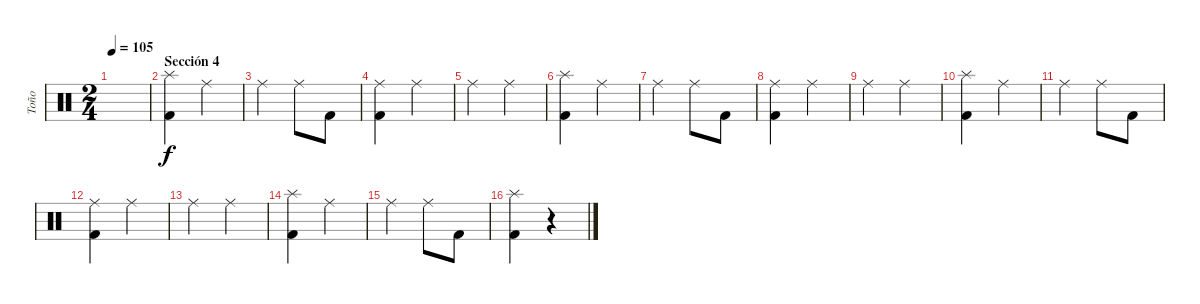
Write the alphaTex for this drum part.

\track ("Toño" "Toño") {instrument percussion}
\staff {score}
\articulation defaults
\ts (2 4)
\tempo 105
\clef neutral
\ks c
|
\section ("" "Sección 4")
("Splash (hit)" "Kick (hit) 2").4 "Ride (middle)".4 |
"Ride (middle)".4 "Ride (middle)".8 "Kick (hit) 2".8 |
("Ride (middle)" "Kick (hit) 2").4 "Ride (middle)".4 |
"Ride (middle)".4 "Ride (middle)".4 |
("Splash (hit)" "Kick (hit) 2").4 "Ride (middle)".4 |
"Ride (middle)".4 "Ride (middle)".8 "Kick (hit) 2".8 |
("Ride (middle)" "Kick (hit) 2").4 "Ride (middle)".4 |
"Ride (middle)".4 "Ride (middle)".4 |
("Splash (hit)" "Kick (hit) 2").4 "Ride (middle)".4 |
"Ride (middle)".4 "Ride (middle)".8 "Kick (hit) 2".8 |
("Ride (middle)" "Kick (hit) 2").4 "Ride (middle)".4 |
"Ride (middle)".4 "Ride (middle)".4 |
("Splash (hit)" "Kick (hit) 2").4 "Ride (middle)".4 |
"Ride (middle)".4 "Ride (middle)".8 "Kick (hit) 2".8 |
("Splash (hit)" "Kick (hit) 2").4 r.4
